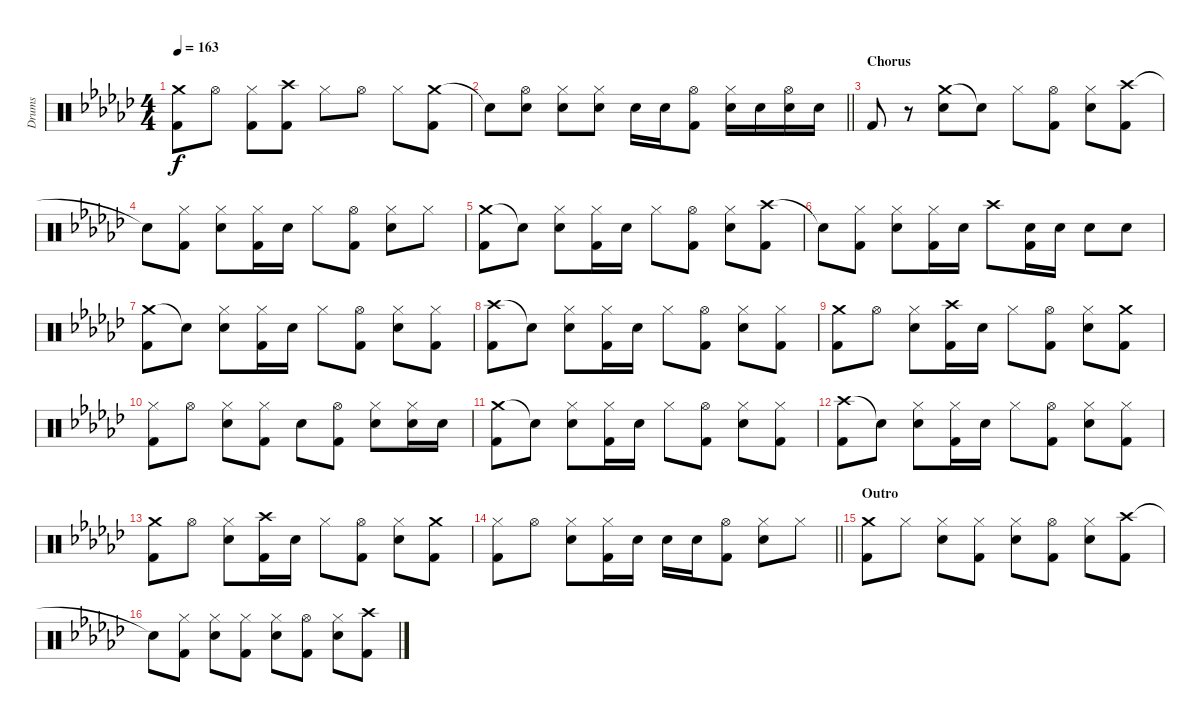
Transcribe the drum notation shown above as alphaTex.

\track ("Drums" "Drums") {mute instrument percussion}
\staff {score}
\articulation defaults
\ts (4 4)
\tempo 163
\clef neutral
\ks gb
("Crash medium (hit)" "Kick (hit) 2").8{dy f} "Hi-Hat (open)".8 ("Hi-Hat (closed)" "Kick (hit) 2").8 ("Crash high (hit)" "Kick (hit) 2").8 "Hi-Hat (closed)".8 "Hi-Hat (open)".8 "Hi-Hat (closed)".8 ("Crash medium (hit)" "Kick (hit) 2").8 |
\barLineRight lightlight "Snare (hit)"{t}.8
("Hi-Hat (open)" "Snare (hit) 2").8 ("Hi-Hat (closed)" "Snare (hit) 2").8 ("Hi-Hat (closed)" "Snare (hit) 2").8 "Snare (hit) 2".16 "Snare (hit) 2".16 ("Hi-Hat (open)" "Kick (hit) 2").8 ("Hi-Hat (closed)" "Snare (hit) 2").16 "Snare (hit) 2".16 ("Hi-Hat (open)" "Snare (hit) 2").16 "Snare (hit) 2".16 |
\section ("" "Chorus")
"Kick (hit) 2".8 r.8 ("Crash medium (hit)" "Snare (hit) 2").8 "Snare (hit)"{t}.8 "Hi-Hat (closed)".8 ("Hi-Hat (open)" "Kick (hit) 2").8 ("Hi-Hat (closed)" "Snare (hit) 2").8 ("Crash high (hit)" "Kick (hit) 2").8 |
"Snare (hit)"{t}.8 ("Hi-Hat (closed)" "Kick (hit) 2").8 ("Hi-Hat (closed)" "Snare (hit) 2").8 ("Hi-Hat (closed)" "Kick (hit) 2").16 "Snare (hit) 2".16 "Hi-Hat (closed)".8 ("Hi-Hat (open)" "Kick (hit) 2").8 ("Hi-Hat (closed)" "Snare (hit) 2").8 "Hi-Hat (closed)".8 |
("Crash medium (hit)" "Kick (hit) 2").8 "Snare (hit)"{t}.8 ("Hi-Hat (closed)" "Snare (hit) 2").8 ("Hi-Hat (closed)" "Kick (hit) 2").16 "Snare (hit) 2".16 "Hi-Hat (closed)".8 ("Hi-Hat (open)" "Kick (hit) 2").8 ("Hi-Hat (closed)" "Snare (hit) 2").8 ("Crash high (hit)" "Kick (hit) 2").8 |
"Snare (hit)"{t}.8 ("Hi-Hat (closed)" "Kick (hit) 2").8 ("Hi-Hat (closed)" "Snare (hit) 2").8 ("Hi-Hat (closed)" "Kick (hit) 2").16 "Snare (hit) 2".16 "Crash high (hit)".8 ("Snare (hit) 2" "Kick (hit) 2").16 "Snare (hit) 2".16 "Snare (hit) 2".8 "Snare (hit) 2".8 |
("Crash medium (hit)" "Kick (hit) 2").8 "Snare (hit)"{t}.8 ("Hi-Hat (closed)" "Snare (hit) 2").8 ("Hi-Hat (closed)" "Kick (hit) 2").16 "Snare (hit) 2".16 "Hi-Hat (closed)".8 ("Hi-Hat (open)" "Kick (hit) 2").8 ("Hi-Hat (closed)" "Snare (hit) 2").8 ("Hi-Hat (closed)" "Kick (hit) 2").8 |
("Crash high (hit)" "Kick (hit) 2").8 "Snare (hit)"{t}.8 ("Hi-Hat (closed)" "Snare (hit) 2").8 ("Hi-Hat (closed)" "Kick (hit) 2").16 "Snare (hit) 2".16 "Hi-Hat (closed)".8 ("Hi-Hat (open)" "Kick (hit) 2").8 ("Hi-Hat (closed)" "Snare (hit) 2").8 ("Hi-Hat (closed)" "Kick (hit) 2").8 |
("Crash medium (hit)" "Kick (hit) 2").8 "Hi-Hat (open)".8 ("Hi-Hat (closed)" "Snare (hit) 2").8 ("Crash high (hit)" "Kick (hit) 2").16 "Snare (hit) 2".16 "Hi-Hat (closed)".8 ("Hi-Hat (open)" "Kick (hit) 2").8 ("Hi-Hat (closed)" "Snare (hit) 2").8 ("Crash medium (hit)" "Kick (hit) 2").8 |
("Hi-Hat (closed)" "Kick (hit) 2").8 "Hi-Hat (open)".8 ("Hi-Hat (closed)" "Snare (hit) 2").8 ("Hi-Hat (closed)" "Kick (hit) 2").8 "Snare (hit) 2".8 ("Hi-Hat (open)" "Kick (hit) 2").8 ("Hi-Hat (closed)" "Snare (hit) 2").8 ("Hi-Hat (closed)" "Snare (hit) 2").16 "Snare (hit) 2".16 |
("Crash medium (hit)" "Kick (hit) 2").8 "Snare (hit)"{t}.8 ("Hi-Hat (closed)" "Snare (hit) 2").8 ("Hi-Hat (closed)" "Kick (hit) 2").16 "Snare (hit) 2".16 "Hi-Hat (closed)".8 ("Hi-Hat (open)" "Kick (hit) 2").8 ("Hi-Hat (closed)" "Snare (hit) 2").8 ("Hi-Hat (closed)" "Kick (hit) 2").8 |
("Crash high (hit)" "Kick (hit) 2").8 "Snare (hit)"{t}.8 ("Hi-Hat (closed)" "Snare (hit) 2").8 ("Hi-Hat (closed)" "Kick (hit) 2").16 "Snare (hit) 2".16 "Hi-Hat (closed)".8 ("Hi-Hat (open)" "Kick (hit) 2").8 ("Hi-Hat (closed)" "Snare (hit) 2").8 ("Hi-Hat (closed)" "Kick (hit) 2").8 |
("Crash medium (hit)" "Kick (hit) 2").8 "Hi-Hat (open)".8 ("Hi-Hat (closed)" "Snare (hit) 2").8 ("Crash high (hit)" "Kick (hit) 2").16 "Snare (hit) 2".16 "Hi-Hat (closed)".8 ("Hi-Hat (open)" "Kick (hit) 2").8 ("Hi-Hat (closed)" "Snare (hit) 2").8 ("Crash medium (hit)" "Kick (hit) 2").8 |
\barLineRight lightlight
("Hi-Hat (closed)" "Kick (hit) 2").8 "Hi-Hat (open)".8 ("Hi-Hat (closed)" "Snare (hit) 2").8 ("Hi-Hat (closed)" "Kick (hit) 2").16 "Snare (hit) 2".16 "Snare (hit) 2".16 "Snare (hit) 2".16 ("Hi-Hat (open)" "Kick (hit) 2").8 ("Hi-Hat (closed)" "Snare (hit) 2").8 "Hi-Hat (closed)".8 |
\section ("" "Outro")
("Crash medium (hit)" "Kick (hit) 2").8 "Hi-Hat (closed)".8 ("Hi-Hat (closed)" "Snare (hit) 2").8 ("Hi-Hat (closed)" "Kick (hit) 2").8 ("Hi-Hat (closed)" "Snare (hit) 2").8 ("Hi-Hat (open)" "Kick (hit) 2").8 ("Hi-Hat (closed)" "Snare (hit) 2").8 ("Crash high (hit)" "Kick (hit) 2").8 |
"Snare (hit)"{t}.8 ("Hi-Hat (closed)" "Kick (hit) 2").8 ("Hi-Hat (closed)" "Snare (hit) 2").8 ("Hi-Hat (closed)" "Kick (hit) 2").8 ("Hi-Hat (closed)" "Snare (hit) 2").8 ("Hi-Hat (open)" "Kick (hit) 2").8 ("Hi-Hat (closed)" "Snare (hit) 2").8 ("Crash high (hit)" "Kick (hit) 2").8
